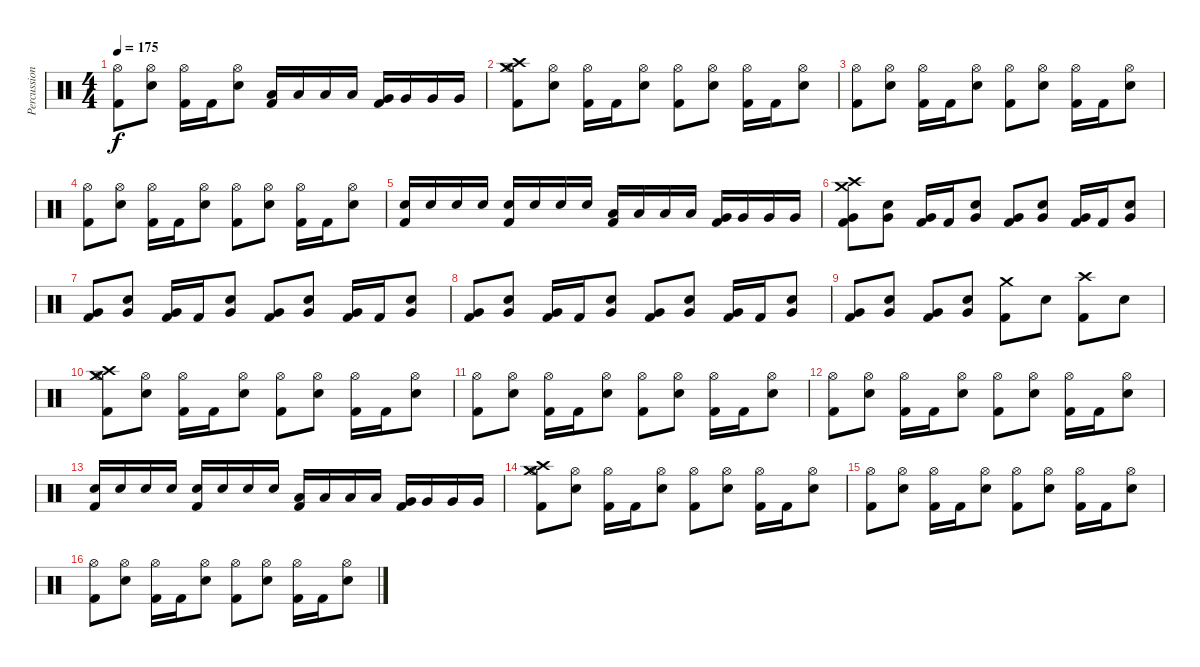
\track ("Percussions" "Percussion") {instrument percussion}
\staff {score}
\articulation defaults
\ts (4 4)
\tempo 175
\clef neutral
\ks c
("Hi-Hat (open)" "Kick (hit) 2").8{dy f} ("Hi-Hat (open)" "Electric Snare (hit)").8 ("Hi-Hat (open)" "Kick (hit) 2").16 "Kick (hit) 2".16 ("Hi-Hat (open)" "Electric Snare (hit)").8 ("Low Tom (hit)" "Kick (hit) 2").16 "Low Tom (hit)".16 "Low Tom (hit)".16 "Low Tom (hit)".16 ("Very Low Tom (hit)" "Kick (hit) 2").16 "Very Low Tom (hit)".16 "Very Low Tom (hit)".16 "Very Low Tom (hit)".16 |
("Hi-Hat (open)" "Crash high (hit)" "Crash medium (hit)" "Kick (hit) 2").8 ("Hi-Hat (open)" "Electric Snare (hit)").8 ("Hi-Hat (open)" "Kick (hit) 2").16 "Kick (hit) 2".16 ("Hi-Hat (open)" "Electric Snare (hit)").8 ("Hi-Hat (open)" "Kick (hit) 2").8 ("Hi-Hat (open)" "Electric Snare (hit)").8 ("Hi-Hat (open)" "Kick (hit) 2").16 "Kick (hit) 2".16 ("Hi-Hat (open)" "Electric Snare (hit)").8 |
("Hi-Hat (open)" "Kick (hit) 2").8 ("Hi-Hat (open)" "Electric Snare (hit)").8 ("Hi-Hat (open)" "Kick (hit) 2").16 "Kick (hit) 2".16 ("Hi-Hat (open)" "Electric Snare (hit)").8 ("Hi-Hat (open)" "Kick (hit) 2").8 ("Hi-Hat (open)" "Electric Snare (hit)").8 ("Hi-Hat (open)" "Kick (hit) 2").16 "Kick (hit) 2".16 ("Hi-Hat (open)" "Electric Snare (hit)").8 |
("Hi-Hat (open)" "Kick (hit) 2").8 ("Hi-Hat (open)" "Electric Snare (hit)").8 ("Hi-Hat (open)" "Kick (hit) 2").16 "Kick (hit) 2".16 ("Hi-Hat (open)" "Electric Snare (hit)").8 ("Hi-Hat (open)" "Kick (hit) 2").8 ("Hi-Hat (open)" "Electric Snare (hit)").8 ("Hi-Hat (open)" "Kick (hit) 2").16 "Kick (hit) 2".16 ("Hi-Hat (open)" "Electric Snare (hit)").8 |
("Electric Snare (hit)" "Kick (hit) 2").16 "Electric Snare (hit)".16 "Electric Snare (hit)".16 "Electric Snare (hit)".16 ("Electric Snare (hit)" "Kick (hit) 2").16 "Electric Snare (hit)".16 "Electric Snare (hit)".16 "Electric Snare (hit)".16 ("Low Tom (hit)" "Kick (hit) 2").16 "Low Tom (hit)".16 "Low Tom (hit)".16 "Low Tom (hit)".16 ("Very Low Tom (hit)" "Kick (hit) 2").16 "Very Low Tom (hit)".16 "Very Low Tom (hit)".16 "Very Low Tom (hit)".16 |
("Very Low Tom (hit)" "Crash high (hit)" "Crash medium (hit)" "Kick (hit) 2").8 ("Very Low Tom (hit)" "Electric Snare (hit)").8 ("Very Low Tom (hit)" "Kick (hit) 2").16 "Kick (hit) 2".16 ("Very Low Tom (hit)" "Electric Snare (hit)").8 ("Very Low Tom (hit)" "Kick (hit) 2").8 ("Very Low Tom (hit)" "Electric Snare (hit)").8 ("Very Low Tom (hit)" "Kick (hit) 2").16 "Kick (hit) 2".16 ("Very Low Tom (hit)" "Electric Snare (hit)").8 |
("Very Low Tom (hit)" "Kick (hit) 2").8 ("Very Low Tom (hit)" "Electric Snare (hit)").8 ("Very Low Tom (hit)" "Kick (hit) 2").16 "Kick (hit) 2".16 ("Very Low Tom (hit)" "Electric Snare (hit)").8 ("Very Low Tom (hit)" "Kick (hit) 2").8 ("Very Low Tom (hit)" "Electric Snare (hit)").8 ("Very Low Tom (hit)" "Kick (hit) 2").16 "Kick (hit) 2".16 ("Very Low Tom (hit)" "Electric Snare (hit)").8 |
("Very Low Tom (hit)" "Kick (hit) 2").8 ("Very Low Tom (hit)" "Electric Snare (hit)").8 ("Very Low Tom (hit)" "Kick (hit) 2").16 "Kick (hit) 2".16 ("Very Low Tom (hit)" "Electric Snare (hit)").8 ("Very Low Tom (hit)" "Kick (hit) 2").8 ("Very Low Tom (hit)" "Electric Snare (hit)").8 ("Very Low Tom (hit)" "Kick (hit) 2").16 "Kick (hit) 2".16 ("Very Low Tom (hit)" "Electric Snare (hit)").8 |
("Very Low Tom (hit)" "Kick (hit) 2").8 ("Very Low Tom (hit)" "Electric Snare (hit)").8 ("Very Low Tom (hit)" "Kick (hit) 2").8 ("Very Low Tom (hit)" "Electric Snare (hit)").8 ("Crash medium (hit)" "Kick (hit) 2").8 "Electric Snare (hit)".8 ("Crash high (hit)" "Kick (hit) 2").8 "Electric Snare (hit)".8 |
("Hi-Hat (open)" "Crash high (hit)" "Crash medium (hit)" "Kick (hit) 2").8 ("Hi-Hat (open)" "Electric Snare (hit)").8 ("Hi-Hat (open)" "Kick (hit) 2").16 "Kick (hit) 2".16 ("Hi-Hat (open)" "Electric Snare (hit)").8 ("Hi-Hat (open)" "Kick (hit) 2").8 ("Hi-Hat (open)" "Electric Snare (hit)").8 ("Hi-Hat (open)" "Kick (hit) 2").16 "Kick (hit) 2".16 ("Hi-Hat (open)" "Electric Snare (hit)").8 |
("Hi-Hat (open)" "Kick (hit) 2").8 ("Hi-Hat (open)" "Electric Snare (hit)").8 ("Hi-Hat (open)" "Kick (hit) 2").16 "Kick (hit) 2".16 ("Hi-Hat (open)" "Electric Snare (hit)").8 ("Hi-Hat (open)" "Kick (hit) 2").8 ("Hi-Hat (open)" "Electric Snare (hit)").8 ("Hi-Hat (open)" "Kick (hit) 2").16 "Kick (hit) 2".16 ("Hi-Hat (open)" "Electric Snare (hit)").8 |
("Hi-Hat (open)" "Kick (hit) 2").8 ("Hi-Hat (open)" "Electric Snare (hit)").8 ("Hi-Hat (open)" "Kick (hit) 2").16 "Kick (hit) 2".16 ("Hi-Hat (open)" "Electric Snare (hit)").8 ("Hi-Hat (open)" "Kick (hit) 2").8 ("Hi-Hat (open)" "Electric Snare (hit)").8 ("Hi-Hat (open)" "Kick (hit) 2").16 "Kick (hit) 2".16 ("Hi-Hat (open)" "Electric Snare (hit)").8 |
("Electric Snare (hit)" "Kick (hit) 2").16 "Electric Snare (hit)".16 "Electric Snare (hit)".16 "Electric Snare (hit)".16 ("Electric Snare (hit)" "Kick (hit) 2").16 "Electric Snare (hit)".16 "Electric Snare (hit)".16 "Electric Snare (hit)".16 ("Low Tom (hit)" "Kick (hit) 2").16 "Low Tom (hit)".16 "Low Tom (hit)".16 "Low Tom (hit)".16 ("Very Low Tom (hit)" "Kick (hit) 2").16 "Very Low Tom (hit)".16 "Very Low Tom (hit)".16 "Very Low Tom (hit)".16 |
("Hi-Hat (open)" "Crash high (hit)" "Crash medium (hit)" "Kick (hit) 2").8 ("Hi-Hat (open)" "Electric Snare (hit)").8 ("Hi-Hat (open)" "Kick (hit) 2").16 "Kick (hit) 2".16 ("Hi-Hat (open)" "Electric Snare (hit)").8 ("Hi-Hat (open)" "Kick (hit) 2").8 ("Hi-Hat (open)" "Electric Snare (hit)").8 ("Hi-Hat (open)" "Kick (hit) 2").16 "Kick (hit) 2".16 ("Hi-Hat (open)" "Electric Snare (hit)").8 |
("Hi-Hat (open)" "Kick (hit) 2").8 ("Hi-Hat (open)" "Electric Snare (hit)").8 ("Hi-Hat (open)" "Kick (hit) 2").16 "Kick (hit) 2".16 ("Hi-Hat (open)" "Electric Snare (hit)").8 ("Hi-Hat (open)" "Kick (hit) 2").8 ("Hi-Hat (open)" "Electric Snare (hit)").8 ("Hi-Hat (open)" "Kick (hit) 2").16 "Kick (hit) 2".16 ("Hi-Hat (open)" "Electric Snare (hit)").8 |
("Hi-Hat (open)" "Kick (hit) 2").8 ("Hi-Hat (open)" "Electric Snare (hit)").8 ("Hi-Hat (open)" "Kick (hit) 2").16 "Kick (hit) 2".16 ("Hi-Hat (open)" "Electric Snare (hit)").8 ("Hi-Hat (open)" "Kick (hit) 2").8 ("Hi-Hat (open)" "Electric Snare (hit)").8 ("Hi-Hat (open)" "Kick (hit) 2").16 "Kick (hit) 2".16 ("Hi-Hat (open)" "Electric Snare (hit)").8
